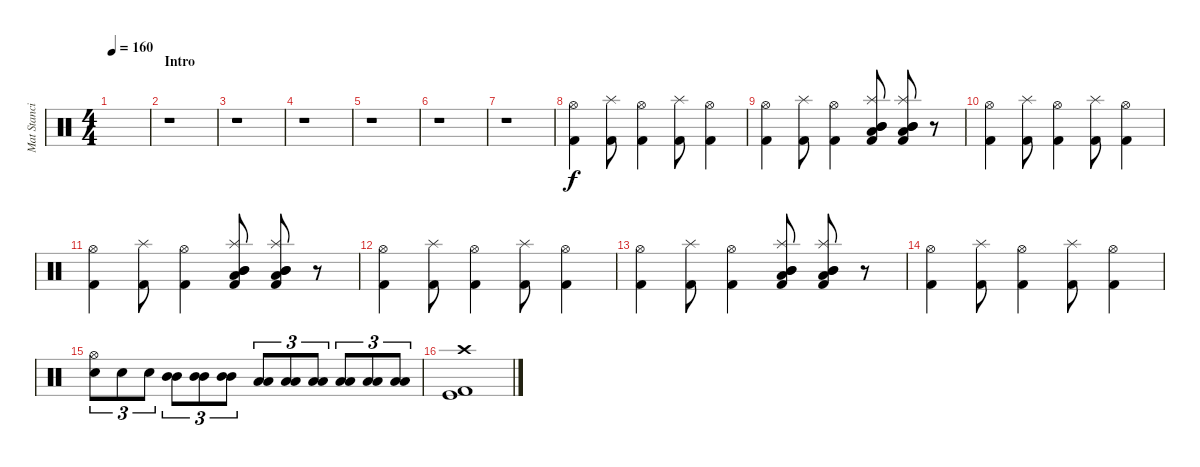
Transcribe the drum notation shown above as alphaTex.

\track ("Mat Stancioiu" "Mat Stanci") {instrument percussion}
\staff {score}
\articulation defaults
\ts (4 4)
\tempo 160
\clef neutral
\ks c
|
\section ("" "Intro")
r.1 |
r.1 |
r.1 |
r.1 |
r.1 |
r.1 |
("Kick (hit) 2" "Hi-Hat (open)").4 ("Kick (hit) 2" "Splash (hit)").8 ("Kick (hit) 2" "Hi-Hat (open)").4 ("Kick (hit) 2" "Splash (hit)").8 ("Kick (hit) 2" "Hi-Hat (open)").4 |
("Kick (hit) 2" "Hi-Hat (open)").4 ("Kick (hit) 2" "Splash (hit)").8 ("Kick (hit) 2" "Hi-Hat (open)").4 ("Kick (hit) 2" "Low Tom (hit)" "Mid Tom (hit)" "Mid Tom (hit)" "Splash (hit)").8 ("Kick (hit) 2" "Low Floor Tom (hit)" "Mid Tom (hit)" "Mid Tom (hit)" "Splash (hit)").8 r.8 |
("Kick (hit) 2" "Hi-Hat (open)").4 ("Kick (hit) 2" "Splash (hit)").8 ("Kick (hit) 2" "Hi-Hat (open)").4 ("Kick (hit) 2" "Splash (hit)").8 ("Kick (hit) 2" "Hi-Hat (open)").4 |
("Kick (hit) 2" "Hi-Hat (open)").4 ("Kick (hit) 2" "Splash (hit)").8 ("Kick (hit) 2" "Hi-Hat (open)").4 ("Kick (hit) 2" "Low Tom (hit)" "Mid Tom (hit)" "Mid Tom (hit)" "Splash (hit)").8 ("Kick (hit) 2" "Low Floor Tom (hit)" "Mid Tom (hit)" "Mid Tom (hit)" "Splash (hit)").8 r.8 |
("Kick (hit) 2" "Hi-Hat (open)").4 ("Kick (hit) 2" "Splash (hit)").8 ("Kick (hit) 2" "Hi-Hat (open)").4 ("Kick (hit) 2" "Splash (hit)").8 ("Kick (hit) 2" "Hi-Hat (open)").4 |
("Kick (hit) 2" "Hi-Hat (open)").4 ("Kick (hit) 2" "Splash (hit)").8 ("Kick (hit) 2" "Hi-Hat (open)").4 ("Kick (hit) 2" "Low Tom (hit)" "Mid Tom (hit)" "Mid Tom (hit)" "Splash (hit)").8 ("Kick (hit) 2" "Low Floor Tom (hit)" "Mid Tom (hit)" "Mid Tom (hit)" "Splash (hit)").8 r.8 |
("Kick (hit) 2" "Hi-Hat (open)").4 ("Kick (hit) 2" "Splash (hit)").8 ("Kick (hit) 2" "Hi-Hat (open)").4 ("Kick (hit) 2" "Splash (hit)").8 ("Kick (hit) 2" "Hi-Hat (open)").4 |
("Electric Snare (hit)" "Hi-Hat (open)").8{tu (3 2)} "Electric Snare (hit)".8{tu (3 2)} "Electric Snare (hit)".8{tu (3 2)} ("Mid Tom (hit)" "Mid Tom (hit)").8{tu (3 2)} ("Mid Tom (hit)" "Mid Tom (hit)").8{tu (3 2)} ("Mid Tom (hit)" "Mid Tom (hit)").8{tu (3 2)} ("Low Tom (hit)" "Low Tom (hit)").8{tu (3 2)} ("Low Tom (hit)" "Low Tom (hit)").8{tu (3 2)} ("Low Tom (hit)" "Low Tom (hit)").8{tu (3 2)} ("Low Floor Tom (hit)" "Low Floor Tom (hit)").8{tu (3 2)} ("Low Floor Tom (hit)" "Low Floor Tom (hit)").8{tu (3 2)} ("Low Floor Tom (hit)" "Low Floor Tom (hit)").8{tu (3 2)} |
("Kick (hit) 2" "Kick (hit)" "Crash high (hit)").1
